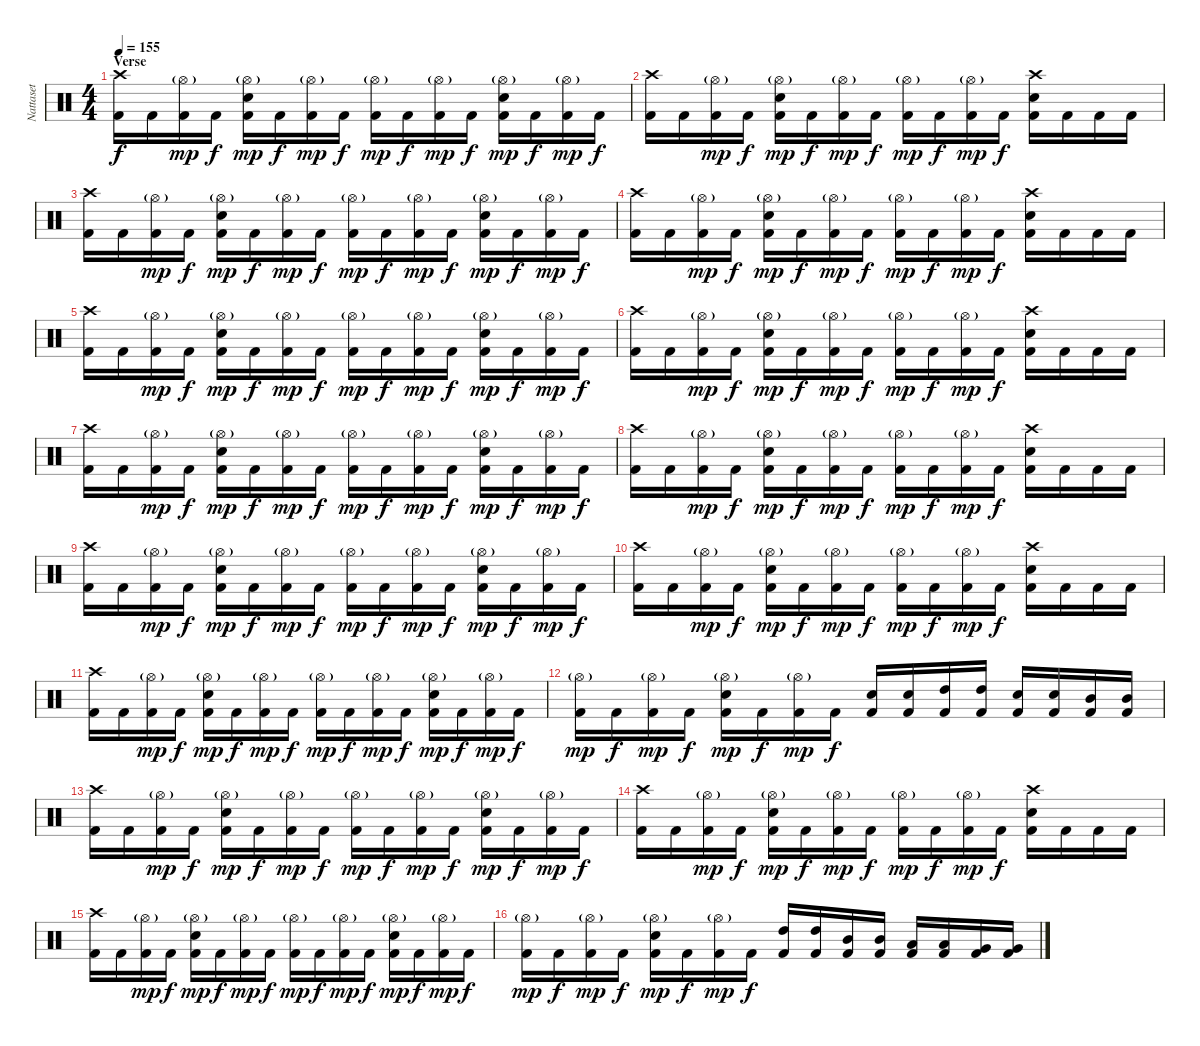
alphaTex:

\track ("Nattaset" "Nattaset") {instrument percussion}
\staff {score}
\articulation defaults
\ts (4 4)
\section ("" "Verse")
\tempo 155
\clef neutral
\ks c
("Crash high (hit)" "Kick (hit) 2").16{dy f} "Kick (hit) 2".16 ("Hi-Hat (open)"{g} "Kick (hit) 2").16{dy mp} "Kick (hit) 2".16{dy f} ("Hi-Hat (open)"{g} "Electric Snare (hit)" "Kick (hit) 2").16{dy mp} "Kick (hit) 2".16{dy f} ("Hi-Hat (open)"{g} "Kick (hit) 2").16{dy mp} "Kick (hit) 2".16{dy f} ("Hi-Hat (open)"{g} "Kick (hit) 2").16{dy mp} "Kick (hit) 2".16{dy f} ("Hi-Hat (open)"{g} "Kick (hit) 2").16{dy mp} "Kick (hit) 2".16{dy f} ("Hi-Hat (open)"{g} "Electric Snare (hit)" "Kick (hit) 2").16{dy mp} "Kick (hit) 2".16{dy f} ("Hi-Hat (open)"{g} "Kick (hit) 2").16{dy mp} "Kick (hit) 2".16{dy f} |
("Crash high (hit)" "Kick (hit) 2").16 "Kick (hit) 2".16 ("Hi-Hat (open)"{g} "Kick (hit) 2").16{dy mp} "Kick (hit) 2".16{dy f} ("Hi-Hat (open)"{g} "Electric Snare (hit)" "Kick (hit) 2").16{dy mp} "Kick (hit) 2".16{dy f} ("Hi-Hat (open)"{g} "Kick (hit) 2").16{dy mp} "Kick (hit) 2".16{dy f} ("Hi-Hat (open)"{g} "Kick (hit) 2").16{dy mp} "Kick (hit) 2".16{dy f} ("Hi-Hat (open)"{g} "Kick (hit) 2").16{dy mp} "Kick (hit) 2".16{dy f} ("Crash high (hit)" "Electric Snare (hit)" "Kick (hit) 2").16 "Kick (hit) 2".16 "Kick (hit) 2".16 "Kick (hit) 2".16 |
("Crash high (hit)" "Kick (hit) 2").16 "Kick (hit) 2".16 ("Hi-Hat (open)"{g} "Kick (hit) 2").16{dy mp} "Kick (hit) 2".16{dy f} ("Hi-Hat (open)"{g} "Electric Snare (hit)" "Kick (hit) 2").16{dy mp} "Kick (hit) 2".16{dy f} ("Hi-Hat (open)"{g} "Kick (hit) 2").16{dy mp} "Kick (hit) 2".16{dy f} ("Hi-Hat (open)"{g} "Kick (hit) 2").16{dy mp} "Kick (hit) 2".16{dy f} ("Hi-Hat (open)"{g} "Kick (hit) 2").16{dy mp} "Kick (hit) 2".16{dy f} ("Hi-Hat (open)"{g} "Electric Snare (hit)" "Kick (hit) 2").16{dy mp} "Kick (hit) 2".16{dy f} ("Hi-Hat (open)"{g} "Kick (hit) 2").16{dy mp} "Kick (hit) 2".16{dy f} |
("Crash high (hit)" "Kick (hit) 2").16 "Kick (hit) 2".16 ("Hi-Hat (open)"{g} "Kick (hit) 2").16{dy mp} "Kick (hit) 2".16{dy f} ("Hi-Hat (open)"{g} "Electric Snare (hit)" "Kick (hit) 2").16{dy mp} "Kick (hit) 2".16{dy f} ("Hi-Hat (open)"{g} "Kick (hit) 2").16{dy mp} "Kick (hit) 2".16{dy f} ("Hi-Hat (open)"{g} "Kick (hit) 2").16{dy mp} "Kick (hit) 2".16{dy f} ("Hi-Hat (open)"{g} "Kick (hit) 2").16{dy mp} "Kick (hit) 2".16{dy f} ("Crash high (hit)" "Electric Snare (hit)" "Kick (hit) 2").16 "Kick (hit) 2".16 "Kick (hit) 2".16 "Kick (hit) 2".16 |
("Crash high (hit)" "Kick (hit) 2").16 "Kick (hit) 2".16 ("Hi-Hat (open)"{g} "Kick (hit) 2").16{dy mp} "Kick (hit) 2".16{dy f} ("Hi-Hat (open)"{g} "Electric Snare (hit)" "Kick (hit) 2").16{dy mp} "Kick (hit) 2".16{dy f} ("Hi-Hat (open)"{g} "Kick (hit) 2").16{dy mp} "Kick (hit) 2".16{dy f} ("Hi-Hat (open)"{g} "Kick (hit) 2").16{dy mp} "Kick (hit) 2".16{dy f} ("Hi-Hat (open)"{g} "Kick (hit) 2").16{dy mp} "Kick (hit) 2".16{dy f} ("Hi-Hat (open)"{g} "Electric Snare (hit)" "Kick (hit) 2").16{dy mp} "Kick (hit) 2".16{dy f} ("Hi-Hat (open)"{g} "Kick (hit) 2").16{dy mp} "Kick (hit) 2".16{dy f} |
("Crash high (hit)" "Kick (hit) 2").16 "Kick (hit) 2".16 ("Hi-Hat (open)"{g} "Kick (hit) 2").16{dy mp} "Kick (hit) 2".16{dy f} ("Hi-Hat (open)"{g} "Electric Snare (hit)" "Kick (hit) 2").16{dy mp} "Kick (hit) 2".16{dy f} ("Hi-Hat (open)"{g} "Kick (hit) 2").16{dy mp} "Kick (hit) 2".16{dy f} ("Hi-Hat (open)"{g} "Kick (hit) 2").16{dy mp} "Kick (hit) 2".16{dy f} ("Hi-Hat (open)"{g} "Kick (hit) 2").16{dy mp} "Kick (hit) 2".16{dy f} ("Crash high (hit)" "Electric Snare (hit)" "Kick (hit) 2").16 "Kick (hit) 2".16 "Kick (hit) 2".16 "Kick (hit) 2".16 |
("Crash high (hit)" "Kick (hit) 2").16 "Kick (hit) 2".16 ("Hi-Hat (open)"{g} "Kick (hit) 2").16{dy mp} "Kick (hit) 2".16{dy f} ("Hi-Hat (open)"{g} "Electric Snare (hit)" "Kick (hit) 2").16{dy mp} "Kick (hit) 2".16{dy f} ("Hi-Hat (open)"{g} "Kick (hit) 2").16{dy mp} "Kick (hit) 2".16{dy f} ("Hi-Hat (open)"{g} "Kick (hit) 2").16{dy mp} "Kick (hit) 2".16{dy f} ("Hi-Hat (open)"{g} "Kick (hit) 2").16{dy mp} "Kick (hit) 2".16{dy f} ("Hi-Hat (open)"{g} "Electric Snare (hit)" "Kick (hit) 2").16{dy mp} "Kick (hit) 2".16{dy f} ("Hi-Hat (open)"{g} "Kick (hit) 2").16{dy mp} "Kick (hit) 2".16{dy f} |
("Crash high (hit)" "Kick (hit) 2").16 "Kick (hit) 2".16 ("Hi-Hat (open)"{g} "Kick (hit) 2").16{dy mp} "Kick (hit) 2".16{dy f} ("Hi-Hat (open)"{g} "Electric Snare (hit)" "Kick (hit) 2").16{dy mp} "Kick (hit) 2".16{dy f} ("Hi-Hat (open)"{g} "Kick (hit) 2").16{dy mp} "Kick (hit) 2".16{dy f} ("Hi-Hat (open)"{g} "Kick (hit) 2").16{dy mp} "Kick (hit) 2".16{dy f} ("Hi-Hat (open)"{g} "Kick (hit) 2").16{dy mp} "Kick (hit) 2".16{dy f} ("Crash high (hit)" "Electric Snare (hit)" "Kick (hit) 2").16 "Kick (hit) 2".16 "Kick (hit) 2".16 "Kick (hit) 2".16 |
("Crash high (hit)" "Kick (hit) 2").16 "Kick (hit) 2".16 ("Hi-Hat (open)"{g} "Kick (hit) 2").16{dy mp} "Kick (hit) 2".16{dy f} ("Hi-Hat (open)"{g} "Electric Snare (hit)" "Kick (hit) 2").16{dy mp} "Kick (hit) 2".16{dy f} ("Hi-Hat (open)"{g} "Kick (hit) 2").16{dy mp} "Kick (hit) 2".16{dy f} ("Hi-Hat (open)"{g} "Kick (hit) 2").16{dy mp} "Kick (hit) 2".16{dy f} ("Hi-Hat (open)"{g} "Kick (hit) 2").16{dy mp} "Kick (hit) 2".16{dy f} ("Hi-Hat (open)"{g} "Electric Snare (hit)" "Kick (hit) 2").16{dy mp} "Kick (hit) 2".16{dy f} ("Hi-Hat (open)"{g} "Kick (hit) 2").16{dy mp} "Kick (hit) 2".16{dy f} |
("Crash high (hit)" "Kick (hit) 2").16 "Kick (hit) 2".16 ("Hi-Hat (open)"{g} "Kick (hit) 2").16{dy mp} "Kick (hit) 2".16{dy f} ("Hi-Hat (open)"{g} "Electric Snare (hit)" "Kick (hit) 2").16{dy mp} "Kick (hit) 2".16{dy f} ("Hi-Hat (open)"{g} "Kick (hit) 2").16{dy mp} "Kick (hit) 2".16{dy f} ("Hi-Hat (open)"{g} "Kick (hit) 2").16{dy mp} "Kick (hit) 2".16{dy f} ("Hi-Hat (open)"{g} "Kick (hit) 2").16{dy mp} "Kick (hit) 2".16{dy f} ("Crash high (hit)" "Electric Snare (hit)" "Kick (hit) 2").16 "Kick (hit) 2".16 "Kick (hit) 2".16 "Kick (hit) 2".16 |
("Crash high (hit)" "Kick (hit) 2").16 "Kick (hit) 2".16 ("Hi-Hat (open)"{g} "Kick (hit) 2").16{dy mp} "Kick (hit) 2".16{dy f} ("Hi-Hat (open)"{g} "Electric Snare (hit)" "Kick (hit) 2").16{dy mp} "Kick (hit) 2".16{dy f} ("Hi-Hat (open)"{g} "Kick (hit) 2").16{dy mp} "Kick (hit) 2".16{dy f} ("Hi-Hat (open)"{g} "Kick (hit) 2").16{dy mp} "Kick (hit) 2".16{dy f} ("Hi-Hat (open)"{g} "Kick (hit) 2").16{dy mp} "Kick (hit) 2".16{dy f} ("Hi-Hat (open)"{g} "Electric Snare (hit)" "Kick (hit) 2").16{dy mp} "Kick (hit) 2".16{dy f} ("Hi-Hat (open)"{g} "Kick (hit) 2").16{dy mp} "Kick (hit) 2".16{dy f} |
("Hi-Hat (open)"{g} "Kick (hit) 2").16{dy mp} "Kick (hit) 2".16{dy f} ("Hi-Hat (open)"{g} "Kick (hit) 2").16{dy mp} "Kick (hit) 2".16{dy f} ("Hi-Hat (open)"{g} "Electric Snare (hit)" "Kick (hit) 2").16{dy mp} "Kick (hit) 2".16{dy f} ("Hi-Hat (open)"{g} "Kick (hit) 2").16{dy mp} "Kick (hit) 2".16{dy f} ("Electric Snare (hit)" "Kick (hit) 2").16 ("Electric Snare (hit)" "Kick (hit) 2").16 ("High Tom (hit)" "Kick (hit) 2").16 ("High Tom (hit)" "Kick (hit) 2").16 ("Electric Snare (hit)" "Kick (hit) 2").16 ("Electric Snare (hit)" "Kick (hit) 2").16 ("Mid Tom (hit)" "Kick (hit) 2").16 ("Mid Tom (hit)" "Kick (hit) 2").16 |
("Crash high (hit)" "Kick (hit) 2").16 "Kick (hit) 2".16 ("Hi-Hat (open)"{g} "Kick (hit) 2").16{dy mp} "Kick (hit) 2".16{dy f} ("Hi-Hat (open)"{g} "Electric Snare (hit)" "Kick (hit) 2").16{dy mp} "Kick (hit) 2".16{dy f} ("Hi-Hat (open)"{g} "Kick (hit) 2").16{dy mp} "Kick (hit) 2".16{dy f} ("Hi-Hat (open)"{g} "Kick (hit) 2").16{dy mp} "Kick (hit) 2".16{dy f} ("Hi-Hat (open)"{g} "Kick (hit) 2").16{dy mp} "Kick (hit) 2".16{dy f} ("Hi-Hat (open)"{g} "Electric Snare (hit)" "Kick (hit) 2").16{dy mp} "Kick (hit) 2".16{dy f} ("Hi-Hat (open)"{g} "Kick (hit) 2").16{dy mp} "Kick (hit) 2".16{dy f} |
("Crash high (hit)" "Kick (hit) 2").16 "Kick (hit) 2".16 ("Hi-Hat (open)"{g} "Kick (hit) 2").16{dy mp} "Kick (hit) 2".16{dy f} ("Hi-Hat (open)"{g} "Electric Snare (hit)" "Kick (hit) 2").16{dy mp} "Kick (hit) 2".16{dy f} ("Hi-Hat (open)"{g} "Kick (hit) 2").16{dy mp} "Kick (hit) 2".16{dy f} ("Hi-Hat (open)"{g} "Kick (hit) 2").16{dy mp} "Kick (hit) 2".16{dy f} ("Hi-Hat (open)"{g} "Kick (hit) 2").16{dy mp} "Kick (hit) 2".16{dy f} ("Crash high (hit)" "Electric Snare (hit)" "Kick (hit) 2").16 "Kick (hit) 2".16 "Kick (hit) 2".16 "Kick (hit) 2".16 |
("Crash high (hit)" "Kick (hit) 2").16 "Kick (hit) 2".16 ("Hi-Hat (open)"{g} "Kick (hit) 2").16{dy mp} "Kick (hit) 2".16{dy f} ("Hi-Hat (open)"{g} "Electric Snare (hit)" "Kick (hit) 2").16{dy mp} "Kick (hit) 2".16{dy f} ("Hi-Hat (open)"{g} "Kick (hit) 2").16{dy mp} "Kick (hit) 2".16{dy f} ("Hi-Hat (open)"{g} "Kick (hit) 2").16{dy mp} "Kick (hit) 2".16{dy f} ("Hi-Hat (open)"{g} "Kick (hit) 2").16{dy mp} "Kick (hit) 2".16{dy f} ("Hi-Hat (open)"{g} "Electric Snare (hit)" "Kick (hit) 2").16{dy mp} "Kick (hit) 2".16{dy f} ("Hi-Hat (open)"{g} "Kick (hit) 2").16{dy mp} "Kick (hit) 2".16{dy f} |
("Hi-Hat (open)"{g} "Kick (hit) 2").16{dy mp} "Kick (hit) 2".16{dy f} ("Hi-Hat (open)"{g} "Kick (hit) 2").16{dy mp} "Kick (hit) 2".16{dy f} ("Hi-Hat (open)"{g} "Electric Snare (hit)" "Kick (hit) 2").16{dy mp} "Kick (hit) 2".16{dy f} ("Hi-Hat (open)"{g} "Kick (hit) 2").16{dy mp} "Kick (hit) 2".16{dy f} ("High Tom (hit)" "Kick (hit) 2").16 ("High Tom (hit)" "Kick (hit) 2").16 ("Mid Tom (hit)" "Kick (hit) 2").16 ("Mid Tom (hit)" "Kick (hit) 2").16 ("Low Tom (hit)" "Kick (hit) 2").16 ("Low Tom (hit)" "Kick (hit) 2").16 ("Very Low Tom (hit)" "Kick (hit) 2").16 ("Very Low Tom (hit)" "Kick (hit) 2").16
